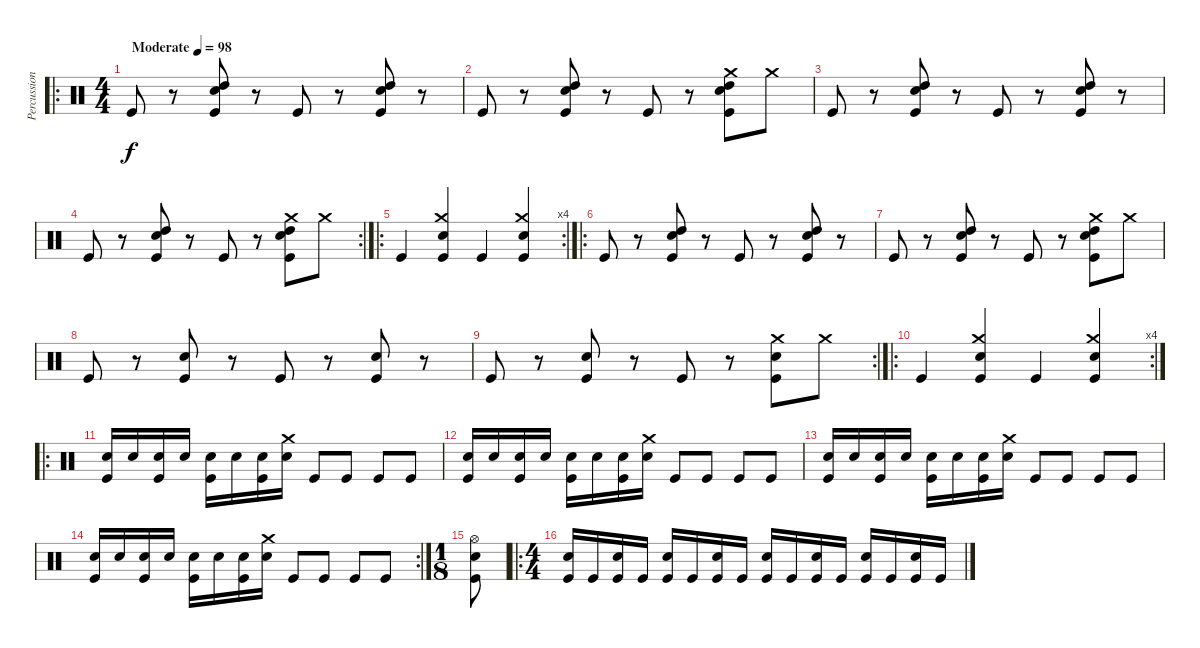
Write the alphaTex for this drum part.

\track ("Percussion" "Percussion") {instrument percussion}
\staff {score}
\articulation defaults
\ro
\ts (4 4)
\tempo (98 "Moderate")
\clef neutral
\ks c "Kick (hit)".8{dy f}
r.8 ("High Tom (hit)" "Snare (hit) 2" "Kick (hit)").8 r.8 "Kick (hit)".8 r.8 ("High Tom (hit)" "Snare (hit) 2" "Kick (hit)").8 r.8 |
"Kick (hit)".8 r.8 ("High Tom (hit)" "Snare (hit) 2" "Kick (hit)").8 r.8 "Kick (hit)".8 r.8 ("Crash medium (hit)" "High Tom (hit)" "Snare (hit) 2" "Kick (hit)").8 "Crash medium (hit)".8 |
"Kick (hit)".8 r.8 ("High Tom (hit)" "Snare (hit) 2" "Kick (hit)").8 r.8 "Kick (hit)".8 r.8 ("High Tom (hit)" "Snare (hit) 2" "Kick (hit)").8 r.8 |
\rc 2 "Kick (hit)".8
r.8 ("High Tom (hit)" "Snare (hit) 2" "Kick (hit)").8 r.8 "Kick (hit)".8 r.8 ("Crash medium (hit)" "High Tom (hit)" "Snare (hit) 2" "Kick (hit)").8 "Crash medium (hit)".8 |
\ro
\rc 4 "Kick (hit)".4
("Crash medium (hit)" "Electric Snare (hit)" "Kick (hit)").4 "Kick (hit)".4 ("Crash medium (hit)" "Electric Snare (hit)" "Kick (hit)").4 |
\ro "Kick (hit)".8
r.8 ("High Tom (hit)" "Snare (hit) 2" "Kick (hit)").8 r.8 "Kick (hit)".8 r.8 ("High Tom (hit)" "Snare (hit) 2" "Kick (hit)").8 r.8 |
"Kick (hit)".8 r.8 ("High Tom (hit)" "Snare (hit) 2" "Kick (hit)").8 r.8 "Kick (hit)".8 r.8 ("Crash medium (hit)" "High Tom (hit)" "Snare (hit) 2" "Kick (hit)").8 "Crash medium (hit)".8 |
"Kick (hit)".8 r.8 ("Snare (hit) 2" "Kick (hit)").8 r.8 "Kick (hit)".8 r.8 ("Snare (hit) 2" "Kick (hit)").8 r.8 |
\rc 2 "Kick (hit)".8
r.8 ("Snare (hit) 2" "Kick (hit)").8 r.8 "Kick (hit)".8 r.8 ("Crash medium (hit)" "Snare (hit) 2" "Kick (hit)").8 "Crash medium (hit)".8 |
\ro
\rc 4 "Kick (hit)".4
("Crash medium (hit)" "Electric Snare (hit)" "Kick (hit)").4 "Kick (hit)".4 ("Crash medium (hit)" "Electric Snare (hit)" "Kick (hit)").4 |
\ro
("Snare (hit) 2" "Kick (hit)").16 "Snare (hit) 2".16 ("Snare (hit) 2" "Kick (hit)").16 "Snare (hit) 2".16 ("Snare (hit) 2" "Kick (hit)").16 "Snare (hit) 2".16 ("Snare (hit) 2" "Kick (hit)").16 ("Crash medium (hit)" "Snare (hit) 2").16 "Kick (hit)".8 "Kick (hit)".8 "Kick (hit)".8 "Kick (hit)".8 |
("Snare (hit) 2" "Kick (hit)").16 "Snare (hit) 2".16 ("Snare (hit) 2" "Kick (hit)").16 "Snare (hit) 2".16 ("Snare (hit) 2" "Kick (hit)").16 "Snare (hit) 2".16 ("Snare (hit) 2" "Kick (hit)").16 ("Crash medium (hit)" "Snare (hit) 2").16 "Kick (hit)".8 "Kick (hit)".8 "Kick (hit)".8 "Kick (hit)".8 |
("Snare (hit) 2" "Kick (hit)").16 "Snare (hit) 2".16 ("Snare (hit) 2" "Kick (hit)").16 "Snare (hit) 2".16 ("Snare (hit) 2" "Kick (hit)").16 "Snare (hit) 2".16 ("Snare (hit) 2" "Kick (hit)").16 ("Crash medium (hit)" "Snare (hit) 2").16 "Kick (hit)".8 "Kick (hit)".8 "Kick (hit)".8 "Kick (hit)".8 |
\rc 2
("Snare (hit) 2" "Kick (hit)").16 "Snare (hit) 2".16 ("Snare (hit) 2" "Kick (hit)").16 "Snare (hit) 2".16 ("Snare (hit) 2" "Kick (hit)").16 "Snare (hit) 2".16 ("Snare (hit) 2" "Kick (hit)").16 ("Crash medium (hit)" "Snare (hit) 2").16 "Kick (hit)".8 "Kick (hit)".8 "Kick (hit)".8 "Kick (hit)".8 |
\ts (1 8)
("Hi-Hat (open)" "Snare (hit) 2" "Kick (hit)").8 |
\ro
\ts (4 4)
("Snare (hit) 2" "Kick (hit)").16 "Kick (hit)".16 ("Snare (hit) 2" "Kick (hit)").16 "Kick (hit)".16 ("Snare (hit) 2" "Kick (hit)").16 "Kick (hit)".16 ("Snare (hit) 2" "Kick (hit)").16 "Kick (hit)".16 ("Snare (hit) 2" "Kick (hit)").16 "Kick (hit)".16 ("Snare (hit) 2" "Kick (hit)").16 "Kick (hit)".16 ("Snare (hit) 2" "Kick (hit)").16 "Kick (hit)".16 ("Snare (hit) 2" "Kick (hit)").16 "Kick (hit)".16
